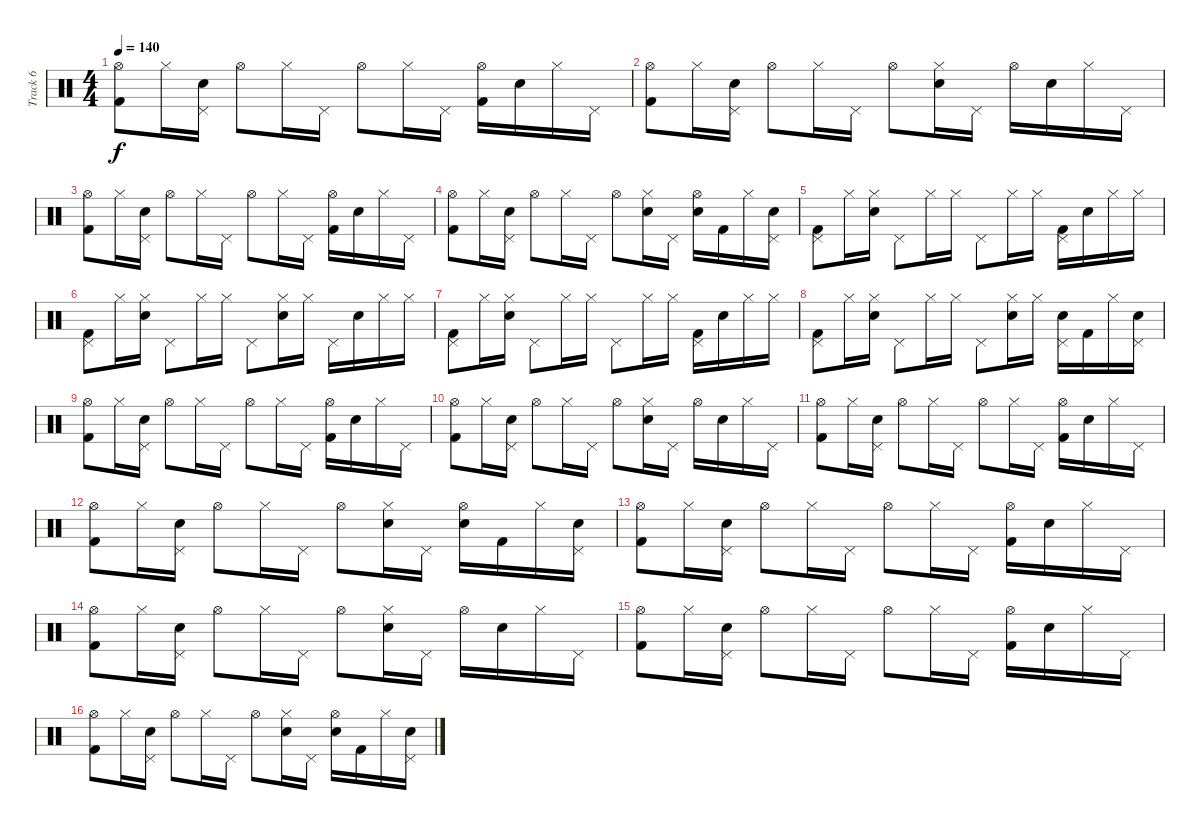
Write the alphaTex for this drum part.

\track ("Track 6" "Track 6") {instrument percussion}
\staff {score}
\articulation defaults
\ts (4 4)
\tempo 140
\clef neutral
\ks c
("Hi-Hat (open)" "Kick (hit) 2").8{dy f} "Hi-Hat (closed)".16 ("Pedal Hi-Hat (hit)" "Electric Snare (hit)").16 "Hi-Hat (open)".8 "Hi-Hat (closed)".16 "Pedal Hi-Hat (hit)".16 "Hi-Hat (open)".8 "Hi-Hat (closed)".16 "Pedal Hi-Hat (hit)".16 ("Hi-Hat (open)" "Kick (hit) 2").16 "Electric Snare (hit)".16 "Hi-Hat (closed)".16 "Pedal Hi-Hat (hit)".16 |
("Hi-Hat (open)" "Kick (hit) 2").8 "Hi-Hat (closed)".16 ("Pedal Hi-Hat (hit)" "Electric Snare (hit)").16 "Hi-Hat (open)".8 "Hi-Hat (closed)".16 "Pedal Hi-Hat (hit)".16 "Hi-Hat (open)".8 ("Hi-Hat (closed)" "Electric Snare (hit)").16 "Pedal Hi-Hat (hit)".16 "Hi-Hat (open)".16 "Electric Snare (hit)".16 "Hi-Hat (closed)".16 "Pedal Hi-Hat (hit)".16 |
("Hi-Hat (open)" "Kick (hit) 2").8 "Hi-Hat (closed)".16 ("Pedal Hi-Hat (hit)" "Electric Snare (hit)").16 "Hi-Hat (open)".8 "Hi-Hat (closed)".16 "Pedal Hi-Hat (hit)".16 "Hi-Hat (open)".8 "Hi-Hat (closed)".16 "Pedal Hi-Hat (hit)".16 ("Hi-Hat (open)" "Kick (hit) 2").16 "Electric Snare (hit)".16 "Hi-Hat (closed)".16 "Pedal Hi-Hat (hit)".16 |
("Hi-Hat (open)" "Kick (hit) 2").8 "Hi-Hat (closed)".16 ("Pedal Hi-Hat (hit)" "Electric Snare (hit)").16 "Hi-Hat (open)".8 "Hi-Hat (closed)".16 "Pedal Hi-Hat (hit)".16 "Hi-Hat (open)".8 ("Hi-Hat (closed)" "Electric Snare (hit)").16 "Pedal Hi-Hat (hit)".16 ("Hi-Hat (open)" "Electric Snare (hit)").16 "Kick (hit) 2".16 "Hi-Hat (closed)".16 ("Pedal Hi-Hat (hit)" "Electric Snare (hit)").16 |
("Pedal Hi-Hat (hit)" "Kick (hit) 2").8 "Hi-Hat (closed)".16 ("Hi-Hat (closed)" "Electric Snare (hit)").16 "Pedal Hi-Hat (hit)".8 "Hi-Hat (closed)".16 "Hi-Hat (closed)".16 "Pedal Hi-Hat (hit)".8 "Hi-Hat (closed)".16 "Hi-Hat (closed)".16 ("Pedal Hi-Hat (hit)" "Kick (hit) 2").16 "Electric Snare (hit)".16 "Hi-Hat (closed)".16 "Hi-Hat (closed)".16 |
("Pedal Hi-Hat (hit)" "Kick (hit) 2").8 "Hi-Hat (closed)".16 ("Hi-Hat (closed)" "Electric Snare (hit)").16 "Pedal Hi-Hat (hit)".8 "Hi-Hat (closed)".16 "Hi-Hat (closed)".16 "Pedal Hi-Hat (hit)".8 ("Hi-Hat (closed)" "Electric Snare (hit)").16 "Hi-Hat (closed)".16 "Pedal Hi-Hat (hit)".16 "Electric Snare (hit)".16 "Hi-Hat (closed)".16 "Hi-Hat (closed)".16 |
("Pedal Hi-Hat (hit)" "Kick (hit) 2").8 "Hi-Hat (closed)".16 ("Hi-Hat (closed)" "Electric Snare (hit)").16 "Pedal Hi-Hat (hit)".8 "Hi-Hat (closed)".16 "Hi-Hat (closed)".16 "Pedal Hi-Hat (hit)".8 "Hi-Hat (closed)".16 "Hi-Hat (closed)".16 ("Pedal Hi-Hat (hit)" "Kick (hit) 2").16 "Electric Snare (hit)".16 "Hi-Hat (closed)".16 "Hi-Hat (closed)".16 |
("Pedal Hi-Hat (hit)" "Kick (hit) 2").8 "Hi-Hat (closed)".16 ("Hi-Hat (closed)" "Electric Snare (hit)").16 "Pedal Hi-Hat (hit)".8 "Hi-Hat (closed)".16 "Hi-Hat (closed)".16 "Pedal Hi-Hat (hit)".8 ("Hi-Hat (closed)" "Electric Snare (hit)").16 "Hi-Hat (closed)".16 ("Pedal Hi-Hat (hit)" "Electric Snare (hit)").16 "Kick (hit) 2".16 "Hi-Hat (closed)".16 ("Pedal Hi-Hat (hit)" "Electric Snare (hit)").16 |
("Hi-Hat (open)" "Kick (hit) 2").8 "Hi-Hat (closed)".16 ("Pedal Hi-Hat (hit)" "Electric Snare (hit)").16 "Hi-Hat (open)".8 "Hi-Hat (closed)".16 "Pedal Hi-Hat (hit)".16 "Hi-Hat (open)".8 "Hi-Hat (closed)".16 "Pedal Hi-Hat (hit)".16 ("Hi-Hat (open)" "Kick (hit) 2").16 "Electric Snare (hit)".16 "Hi-Hat (closed)".16 "Pedal Hi-Hat (hit)".16 |
("Hi-Hat (open)" "Kick (hit) 2").8 "Hi-Hat (closed)".16 ("Pedal Hi-Hat (hit)" "Electric Snare (hit)").16 "Hi-Hat (open)".8 "Hi-Hat (closed)".16 "Pedal Hi-Hat (hit)".16 "Hi-Hat (open)".8 ("Hi-Hat (closed)" "Electric Snare (hit)").16 "Pedal Hi-Hat (hit)".16 "Hi-Hat (open)".16 "Electric Snare (hit)".16 "Hi-Hat (closed)".16 "Pedal Hi-Hat (hit)".16 |
("Hi-Hat (open)" "Kick (hit) 2").8 "Hi-Hat (closed)".16 ("Pedal Hi-Hat (hit)" "Electric Snare (hit)").16 "Hi-Hat (open)".8 "Hi-Hat (closed)".16 "Pedal Hi-Hat (hit)".16 "Hi-Hat (open)".8 "Hi-Hat (closed)".16 "Pedal Hi-Hat (hit)".16 ("Hi-Hat (open)" "Kick (hit) 2").16 "Electric Snare (hit)".16 "Hi-Hat (closed)".16 "Pedal Hi-Hat (hit)".16 |
("Hi-Hat (open)" "Kick (hit) 2").8 "Hi-Hat (closed)".16 ("Pedal Hi-Hat (hit)" "Electric Snare (hit)").16 "Hi-Hat (open)".8 "Hi-Hat (closed)".16 "Pedal Hi-Hat (hit)".16 "Hi-Hat (open)".8 ("Hi-Hat (closed)" "Electric Snare (hit)").16 "Pedal Hi-Hat (hit)".16 ("Hi-Hat (open)" "Electric Snare (hit)").16 "Kick (hit) 2".16 "Hi-Hat (closed)".16 ("Pedal Hi-Hat (hit)" "Electric Snare (hit)").16 |
("Hi-Hat (open)" "Kick (hit) 2").8 "Hi-Hat (closed)".16 ("Pedal Hi-Hat (hit)" "Electric Snare (hit)").16 "Hi-Hat (open)".8 "Hi-Hat (closed)".16 "Pedal Hi-Hat (hit)".16 "Hi-Hat (open)".8 "Hi-Hat (closed)".16 "Pedal Hi-Hat (hit)".16 ("Hi-Hat (open)" "Kick (hit) 2").16 "Electric Snare (hit)".16 "Hi-Hat (closed)".16 "Pedal Hi-Hat (hit)".16 |
("Hi-Hat (open)" "Kick (hit) 2").8 "Hi-Hat (closed)".16 ("Pedal Hi-Hat (hit)" "Electric Snare (hit)").16 "Hi-Hat (open)".8 "Hi-Hat (closed)".16 "Pedal Hi-Hat (hit)".16 "Hi-Hat (open)".8 ("Hi-Hat (closed)" "Electric Snare (hit)").16 "Pedal Hi-Hat (hit)".16 "Hi-Hat (open)".16 "Electric Snare (hit)".16 "Hi-Hat (closed)".16 "Pedal Hi-Hat (hit)".16 |
("Hi-Hat (open)" "Kick (hit) 2").8 "Hi-Hat (closed)".16 ("Pedal Hi-Hat (hit)" "Electric Snare (hit)").16 "Hi-Hat (open)".8 "Hi-Hat (closed)".16 "Pedal Hi-Hat (hit)".16 "Hi-Hat (open)".8 "Hi-Hat (closed)".16 "Pedal Hi-Hat (hit)".16 ("Hi-Hat (open)" "Kick (hit) 2").16 "Electric Snare (hit)".16 "Hi-Hat (closed)".16 "Pedal Hi-Hat (hit)".16 |
("Hi-Hat (open)" "Kick (hit) 2").8 "Hi-Hat (closed)".16 ("Pedal Hi-Hat (hit)" "Electric Snare (hit)").16 "Hi-Hat (open)".8 "Hi-Hat (closed)".16 "Pedal Hi-Hat (hit)".16 "Hi-Hat (open)".8 ("Hi-Hat (closed)" "Electric Snare (hit)").16 "Pedal Hi-Hat (hit)".16 ("Hi-Hat (open)" "Electric Snare (hit)").16 "Kick (hit) 2".16 "Hi-Hat (closed)".16 ("Pedal Hi-Hat (hit)" "Electric Snare (hit)").16
